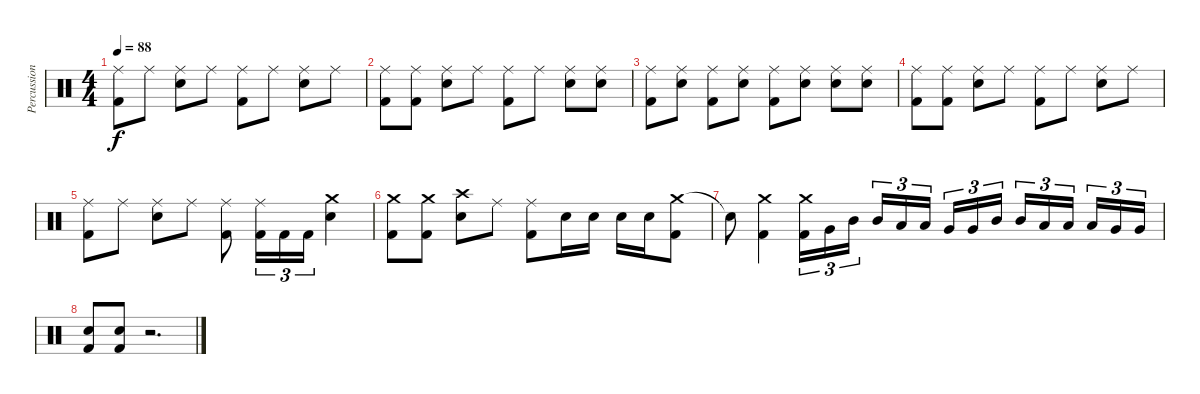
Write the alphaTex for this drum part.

\track ("Percussions" "Percussion") {instrument percussion}
\staff {score}
\articulation defaults
\ts (4 4)
\tempo 88
\clef neutral
\ks c
("Ride (middle)" "Kick (hit) 2").8{dy f} "Ride (middle)".8 ("Ride (middle)" "Snare (hit) 2").8 "Ride (middle)".8 ("Ride (middle)" "Kick (hit) 2").8 "Ride (middle)".8 ("Ride (middle)" "Snare (hit) 2").8 "Ride (middle)".8 |
("Ride (middle)" "Kick (hit) 2").8 ("Ride (middle)" "Kick (hit) 2").8 ("Ride (middle)" "Snare (hit) 2").8 "Ride (middle)".8 ("Ride (middle)" "Kick (hit) 2").8 "Ride (middle)".8 ("Ride (middle)" "Snare (hit) 2").8 ("Ride (middle)" "Snare (hit) 2").8 |
("Ride (middle)" "Kick (hit) 2").8 ("Ride (middle)" "Snare (hit) 2").8 ("Ride (middle)" "Kick (hit) 2").8 ("Ride (middle)" "Snare (hit) 2").8 ("Ride (middle)" "Kick (hit) 2").8 ("Ride (middle)" "Snare (hit) 2").8 ("Ride (middle)" "Snare (hit) 2").8 ("Ride (middle)" "Snare (hit) 2").8 |
("Ride (middle)" "Kick (hit) 2").8 ("Ride (middle)" "Kick (hit) 2").8 ("Ride (middle)" "Snare (hit) 2").8 "Ride (middle)".8 ("Ride (middle)" "Kick (hit) 2").8 "Ride (middle)".8 ("Ride (middle)" "Snare (hit) 2").8 "Ride (middle)".8 |
("Ride (middle)" "Kick (hit) 2").8 "Ride (middle)".8 ("Ride (middle)" "Snare (hit) 2").8 "Ride (middle)".8 ("Ride (middle)" "Kick (hit) 2").8 ("Ride (middle)" "Kick (hit) 2").16{tu (3 2)} "Kick (hit) 2".16{tu (3 2)} "Kick (hit) 2".16{tu (3 2)} ("Crash medium (hit)" "Snare (hit) 2").4 |
("Crash medium (hit)" "Kick (hit) 2").8 ("Crash medium (hit)" "Kick (hit) 2").8 ("Crash high (hit)" "Snare (hit) 2").8 "Ride (middle)".8 ("Ride (middle)" "Kick (hit) 2").8 "Snare (hit) 2".16 "Snare (hit) 2".16 "Snare (hit) 2".16 "Snare (hit) 2".16 ("Crash medium (hit)" "Kick (hit) 2").8 |
"Snare (hit)"{t}.8 ("Crash medium (hit)" "Kick (hit) 2").4 ("Crash medium (hit)" "Kick (hit) 2").16{tu (3 2)} "Very Low Tom (hit)".16{tu (3 2)} "Mid Tom (hit)".16{tu (3 2)} "Mid Tom (hit)".16{tu (3 2)} "Low Tom (hit)".16{tu (3 2)} "Low Tom (hit)".16{tu (3 2) beam splitsecondary} "Very Low Tom (hit)".16{tu (3 2)} "Very Low Tom (hit)".16{tu (3 2)} "Mid Tom (hit)".16{tu (3 2)} "Mid Tom (hit)".16{tu (3 2)} "Low Tom (hit)".16{tu (3 2)} "Low Tom (hit)".16{tu (3 2) beam splitsecondary} "Low Tom (hit)".16{tu (3 2)} "Very Low Tom (hit)".16{tu (3 2)} "Very Low Tom (hit)".16{tu (3 2)} |
("Snare (hit) 2" "Kick (hit) 2").8 ("Snare (hit) 2" "Kick (hit) 2").8 r.2{d}
